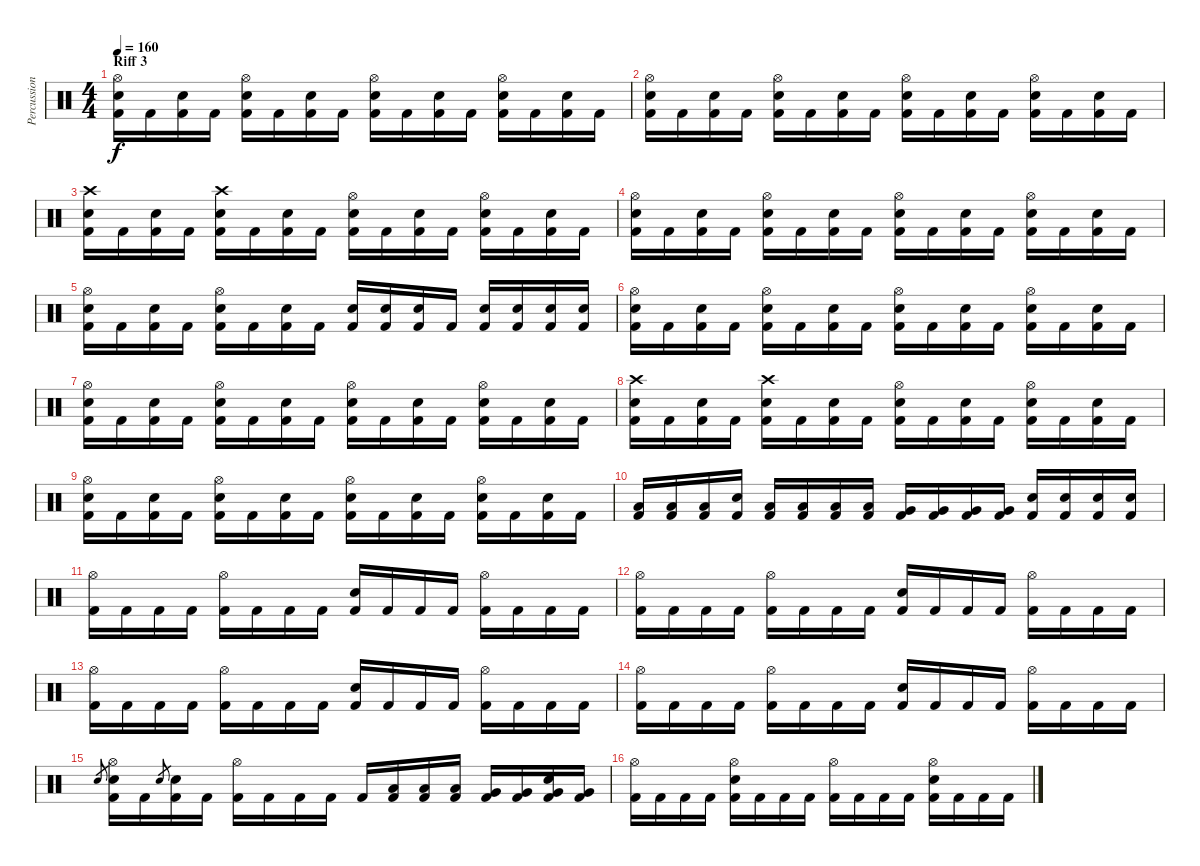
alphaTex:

\track ("Percussions" "Percussion") {instrument percussion bank 1}
\staff {score}
\articulation defaults
\ts (4 4)
\section ("" "Riff 3")
\tempo 160
\clef neutral
\ks c
("Kick (hit) 2" "Electric Snare (hit)" "Hi-Hat (open)").16{dy f} "Kick (hit) 2".16 ("Kick (hit) 2" "Electric Snare (hit)").16 "Kick (hit) 2".16 ("Kick (hit) 2" "Electric Snare (hit)" "Hi-Hat (open)").16 "Kick (hit) 2".16 ("Kick (hit) 2" "Electric Snare (hit)").16 "Kick (hit) 2".16 ("Kick (hit) 2" "Electric Snare (hit)" "Hi-Hat (open)").16 "Kick (hit) 2".16 ("Kick (hit) 2" "Electric Snare (hit)").16 "Kick (hit) 2".16 ("Kick (hit) 2" "Electric Snare (hit)" "Hi-Hat (open)").16 "Kick (hit) 2".16 ("Kick (hit) 2" "Electric Snare (hit)").16 "Kick (hit) 2".16 |
("Kick (hit) 2" "Electric Snare (hit)" "Hi-Hat (open)").16 "Kick (hit) 2".16 ("Kick (hit) 2" "Electric Snare (hit)").16 "Kick (hit) 2".16 ("Kick (hit) 2" "Electric Snare (hit)" "Hi-Hat (open)").16 "Kick (hit) 2".16 ("Kick (hit) 2" "Electric Snare (hit)").16 "Kick (hit) 2".16 ("Kick (hit) 2" "Electric Snare (hit)" "Hi-Hat (open)").16 "Kick (hit) 2".16 ("Kick (hit) 2" "Electric Snare (hit)").16 "Kick (hit) 2".16 ("Kick (hit) 2" "Electric Snare (hit)" "Hi-Hat (open)").16 "Kick (hit) 2".16 ("Kick (hit) 2" "Electric Snare (hit)").16 "Kick (hit) 2".16 |
("Kick (hit) 2" "Electric Snare (hit)" "Crash high (hit)").16 "Kick (hit) 2".16 ("Kick (hit) 2" "Electric Snare (hit)").16 "Kick (hit) 2".16 ("Kick (hit) 2" "Electric Snare (hit)" "Crash high (hit)").16 "Kick (hit) 2".16 ("Kick (hit) 2" "Electric Snare (hit)").16 "Kick (hit) 2".16 ("Kick (hit) 2" "Electric Snare (hit)" "Hi-Hat (open)").16 "Kick (hit) 2".16 ("Kick (hit) 2" "Electric Snare (hit)").16 "Kick (hit) 2".16 ("Kick (hit) 2" "Electric Snare (hit)" "Hi-Hat (open)").16 "Kick (hit) 2".16 ("Kick (hit) 2" "Electric Snare (hit)").16 "Kick (hit) 2".16 |
("Kick (hit) 2" "Electric Snare (hit)" "Hi-Hat (open)").16 "Kick (hit) 2".16 ("Kick (hit) 2" "Electric Snare (hit)").16 "Kick (hit) 2".16 ("Kick (hit) 2" "Electric Snare (hit)" "Hi-Hat (open)").16 "Kick (hit) 2".16 ("Kick (hit) 2" "Electric Snare (hit)").16 "Kick (hit) 2".16 ("Kick (hit) 2" "Electric Snare (hit)" "Hi-Hat (open)").16 "Kick (hit) 2".16 ("Kick (hit) 2" "Electric Snare (hit)").16 "Kick (hit) 2".16 ("Kick (hit) 2" "Electric Snare (hit)" "Hi-Hat (open)").16 "Kick (hit) 2".16 ("Kick (hit) 2" "Electric Snare (hit)").16 "Kick (hit) 2".16 |
("Kick (hit) 2" "Electric Snare (hit)" "Hi-Hat (open)").16 "Kick (hit) 2".16 ("Kick (hit) 2" "Electric Snare (hit)").16 "Kick (hit) 2".16 ("Kick (hit) 2" "Electric Snare (hit)" "Hi-Hat (open)").16 "Kick (hit) 2".16 ("Kick (hit) 2" "Electric Snare (hit)").16 "Kick (hit) 2".16 ("Kick (hit) 2" "Electric Snare (hit)").16 ("Kick (hit) 2" "Electric Snare (hit)").16 ("Kick (hit) 2" "Electric Snare (hit)").16 "Kick (hit) 2".16 ("Kick (hit) 2" "Electric Snare (hit)").16 ("Kick (hit) 2" "Electric Snare (hit)").16 ("Kick (hit) 2" "Electric Snare (hit)").16 ("Kick (hit) 2" "Electric Snare (hit)").16 |
("Kick (hit) 2" "Electric Snare (hit)" "Hi-Hat (open)").16 "Kick (hit) 2".16 ("Kick (hit) 2" "Electric Snare (hit)").16 "Kick (hit) 2".16 ("Kick (hit) 2" "Electric Snare (hit)" "Hi-Hat (open)").16 "Kick (hit) 2".16 ("Kick (hit) 2" "Electric Snare (hit)").16 "Kick (hit) 2".16 ("Kick (hit) 2" "Electric Snare (hit)" "Hi-Hat (open)").16 "Kick (hit) 2".16 ("Kick (hit) 2" "Electric Snare (hit)").16 "Kick (hit) 2".16 ("Kick (hit) 2" "Electric Snare (hit)" "Hi-Hat (open)").16 "Kick (hit) 2".16 ("Kick (hit) 2" "Electric Snare (hit)").16 "Kick (hit) 2".16 |
("Kick (hit) 2" "Electric Snare (hit)" "Hi-Hat (open)").16 "Kick (hit) 2".16 ("Kick (hit) 2" "Electric Snare (hit)").16 "Kick (hit) 2".16 ("Kick (hit) 2" "Electric Snare (hit)" "Hi-Hat (open)").16 "Kick (hit) 2".16 ("Kick (hit) 2" "Electric Snare (hit)").16 "Kick (hit) 2".16 ("Kick (hit) 2" "Electric Snare (hit)" "Hi-Hat (open)").16 "Kick (hit) 2".16 ("Kick (hit) 2" "Electric Snare (hit)").16 "Kick (hit) 2".16 ("Kick (hit) 2" "Electric Snare (hit)" "Hi-Hat (open)").16 "Kick (hit) 2".16 ("Kick (hit) 2" "Electric Snare (hit)").16 "Kick (hit) 2".16 |
("Kick (hit) 2" "Electric Snare (hit)" "Crash high (hit)").16 "Kick (hit) 2".16 ("Kick (hit) 2" "Electric Snare (hit)").16 "Kick (hit) 2".16 ("Kick (hit) 2" "Electric Snare (hit)" "Crash high (hit)").16 "Kick (hit) 2".16 ("Kick (hit) 2" "Electric Snare (hit)").16 "Kick (hit) 2".16 ("Kick (hit) 2" "Electric Snare (hit)" "Hi-Hat (open)").16 "Kick (hit) 2".16 ("Kick (hit) 2" "Electric Snare (hit)").16 "Kick (hit) 2".16 ("Kick (hit) 2" "Electric Snare (hit)" "Hi-Hat (open)").16 "Kick (hit) 2".16 ("Kick (hit) 2" "Electric Snare (hit)").16 "Kick (hit) 2".16 |
("Kick (hit) 2" "Electric Snare (hit)" "Hi-Hat (open)").16 "Kick (hit) 2".16 ("Kick (hit) 2" "Electric Snare (hit)").16 "Kick (hit) 2".16 ("Kick (hit) 2" "Electric Snare (hit)" "Hi-Hat (open)").16 "Kick (hit) 2".16 ("Kick (hit) 2" "Electric Snare (hit)").16 "Kick (hit) 2".16 ("Kick (hit) 2" "Electric Snare (hit)" "Hi-Hat (open)").16 "Kick (hit) 2".16 ("Kick (hit) 2" "Electric Snare (hit)").16 "Kick (hit) 2".16 ("Kick (hit) 2" "Electric Snare (hit)" "Hi-Hat (open)").16 "Kick (hit) 2".16 ("Kick (hit) 2" "Electric Snare (hit)").16 "Kick (hit) 2".16 |
("Kick (hit) 2" "Low Floor Tom (hit)").16 ("Kick (hit) 2" "Low Floor Tom (hit)").16 ("Kick (hit) 2" "Low Floor Tom (hit)").16 ("Kick (hit) 2" "Snare (hit)").16 ("Kick (hit) 2" "Low Floor Tom (hit)").16 ("Kick (hit) 2" "Low Floor Tom (hit)").16 ("Kick (hit) 2" "Low Floor Tom (hit)").16 ("Kick (hit) 2" "Low Floor Tom (hit)").16 ("Kick (hit) 2" "Very Low Tom (hit)").16 ("Kick (hit) 2" "Very Low Tom (hit)").16 ("Kick (hit) 2" "Very Low Tom (hit)").16 ("Kick (hit) 2" "Very Low Tom (hit)").16 ("Kick (hit) 2" "Electric Snare (hit)").16 ("Kick (hit) 2" "Electric Snare (hit)").16 ("Kick (hit) 2" "Electric Snare (hit)").16 ("Kick (hit) 2" "Electric Snare (hit)").16 |
("Kick (hit) 2" "Hi-Hat (open)").16 "Kick (hit) 2".16 "Kick (hit) 2".16 "Kick (hit) 2".16 ("Kick (hit) 2" "Hi-Hat (open)").16 "Kick (hit) 2".16 "Kick (hit) 2".16 "Kick (hit) 2".16 ("Kick (hit) 2" "Electric Snare (hit)").16 "Kick (hit) 2".16 "Kick (hit) 2".16 "Kick (hit) 2".16 ("Kick (hit) 2" "Hi-Hat (open)").16 "Kick (hit) 2".16 "Kick (hit) 2".16 "Kick (hit) 2".16 |
("Kick (hit) 2" "Hi-Hat (open)").16 "Kick (hit) 2".16 "Kick (hit) 2".16 "Kick (hit) 2".16 ("Kick (hit) 2" "Hi-Hat (open)").16 "Kick (hit) 2".16 "Kick (hit) 2".16 "Kick (hit) 2".16 ("Kick (hit) 2" "Electric Snare (hit)").16 "Kick (hit) 2".16 "Kick (hit) 2".16 "Kick (hit) 2".16 ("Kick (hit) 2" "Hi-Hat (open)").16 "Kick (hit) 2".16 "Kick (hit) 2".16 "Kick (hit) 2".16 |
("Kick (hit) 2" "Hi-Hat (open)").16 "Kick (hit) 2".16 "Kick (hit) 2".16 "Kick (hit) 2".16 ("Kick (hit) 2" "Hi-Hat (open)").16 "Kick (hit) 2".16 "Kick (hit) 2".16 "Kick (hit) 2".16 ("Kick (hit) 2" "Electric Snare (hit)").16 "Kick (hit) 2".16 "Kick (hit) 2".16 "Kick (hit) 2".16 ("Kick (hit) 2" "Hi-Hat (open)").16 "Kick (hit) 2".16 "Kick (hit) 2".16 "Kick (hit) 2".16 |
("Kick (hit) 2" "Hi-Hat (open)").16 "Kick (hit) 2".16 "Kick (hit) 2".16 "Kick (hit) 2".16 ("Kick (hit) 2" "Hi-Hat (open)").16 "Kick (hit) 2".16 "Kick (hit) 2".16 "Kick (hit) 2".16 ("Kick (hit) 2" "Electric Snare (hit)").16 "Kick (hit) 2".16 "Kick (hit) 2".16 "Kick (hit) 2".16 ("Kick (hit) 2" "Hi-Hat (open)").16 "Kick (hit) 2".16 "Kick (hit) 2".16 "Kick (hit) 2".16 |
"Electric Snare (hit)".8{gr} ("Kick (hit) 2" "Electric Snare (hit)" "Hi-Hat (open)").16 "Kick (hit) 2".16 "Electric Snare (hit)".8{gr} ("Kick (hit) 2" "Electric Snare (hit)").16 "Kick (hit) 2".16 ("Kick (hit) 2" "Hi-Hat (open)").16 "Kick (hit) 2".16 "Kick (hit) 2".16 "Kick (hit) 2".16 "Kick (hit) 2".16 ("Kick (hit) 2" "Low Floor Tom (hit)").16 ("Kick (hit) 2" "Low Floor Tom (hit)").16 ("Kick (hit) 2" "Low Floor Tom (hit)").16 ("Kick (hit) 2" "Very Low Tom (hit)").16 ("Kick (hit) 2" "Very Low Tom (hit)").16 ("Kick (hit) 2" "Very Low Tom (hit)" "Electric Snare (hit)").16 ("Kick (hit) 2" "Very Low Tom (hit)").16 |
("Kick (hit) 2" "Hi-Hat (open)").16 "Kick (hit) 2".16 "Kick (hit) 2".16 "Kick (hit) 2".16 ("Kick (hit) 2" "Electric Snare (hit)" "Hi-Hat (open)").16 "Kick (hit) 2".16 "Kick (hit) 2".16 "Kick (hit) 2".16 ("Kick (hit) 2" "Hi-Hat (open)").16 "Kick (hit) 2".16 "Kick (hit) 2".16 "Kick (hit) 2".16 ("Kick (hit) 2" "Electric Snare (hit)" "Hi-Hat (open)").16 "Kick (hit) 2".16 "Kick (hit) 2".16 "Kick (hit) 2".16
